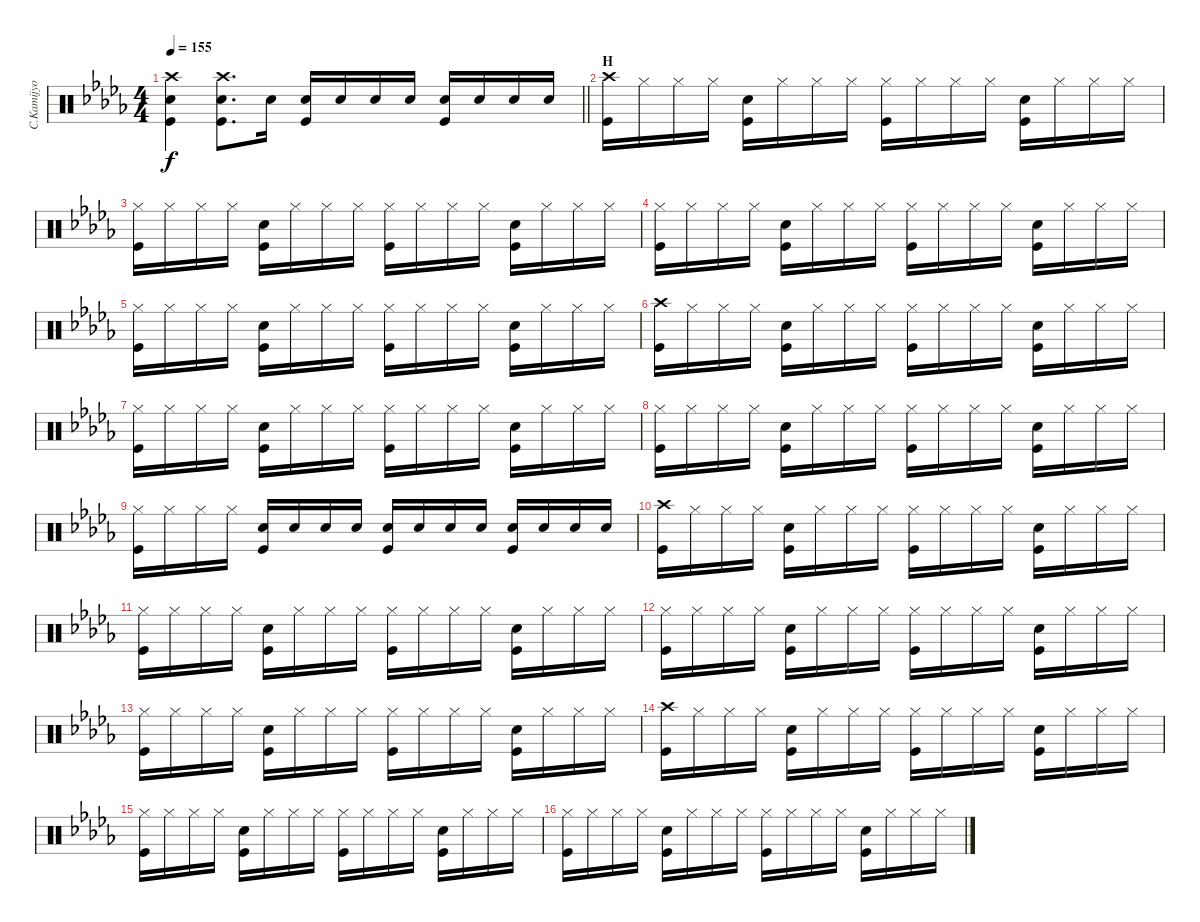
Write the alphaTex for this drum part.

\track ("C.Kamijyo DRUMS" "C.Kamijyo ") {instrument percussion}
\staff {score}
\articulation defaults
\ts (4 4)
\tempo 155
\clef neutral
\barLineRight lightlight
\ks db
("Crash high (hit)" "Snare (hit) 2" "Kick (hit)").4{dy f} ("Crash high (hit)" "Snare (hit) 2" "Kick (hit)").8{d} "Snare (hit) 2".16 ("Snare (hit) 2" "Kick (hit)").16 "Snare (hit) 2".16 "Snare (hit) 2".16 "Snare (hit) 2".16 ("Snare (hit) 2" "Kick (hit)").16 "Snare (hit) 2".16 "Snare (hit) 2".16 "Snare (hit) 2".16 |
\section ("" "H")
("Crash high (hit)" "Kick (hit)").16 "Hi-Hat (closed)".16 "Hi-Hat (closed)".16 "Hi-Hat (closed)".16 ("Snare (hit) 2" "Kick (hit)").16 "Hi-Hat (closed)".16 "Hi-Hat (closed)".16 "Hi-Hat (closed)".16 ("Hi-Hat (closed)" "Kick (hit)").16 "Hi-Hat (closed)".16 "Hi-Hat (closed)".16 "Hi-Hat (closed)".16 ("Snare (hit) 2" "Kick (hit)").16 "Hi-Hat (closed)".16 "Hi-Hat (closed)".16 "Hi-Hat (closed)".16 |
("Hi-Hat (closed)" "Kick (hit)").16 "Hi-Hat (closed)".16 "Hi-Hat (closed)".16 "Hi-Hat (closed)".16 ("Snare (hit) 2" "Kick (hit)").16 "Hi-Hat (closed)".16 "Hi-Hat (closed)".16 "Hi-Hat (closed)".16 ("Hi-Hat (closed)" "Kick (hit)").16 "Hi-Hat (closed)".16 "Hi-Hat (closed)".16 "Hi-Hat (closed)".16 ("Snare (hit) 2" "Kick (hit)").16 "Hi-Hat (closed)".16 "Hi-Hat (closed)".16 "Hi-Hat (closed)".16 |
("Hi-Hat (closed)" "Kick (hit)").16 "Hi-Hat (closed)".16 "Hi-Hat (closed)".16 "Hi-Hat (closed)".16 ("Snare (hit) 2" "Kick (hit)").16 "Hi-Hat (closed)".16 "Hi-Hat (closed)".16 "Hi-Hat (closed)".16 ("Hi-Hat (closed)" "Kick (hit)").16 "Hi-Hat (closed)".16 "Hi-Hat (closed)".16 "Hi-Hat (closed)".16 ("Snare (hit) 2" "Kick (hit)").16 "Hi-Hat (closed)".16 "Hi-Hat (closed)".16 "Hi-Hat (closed)".16 |
("Hi-Hat (closed)" "Kick (hit)").16 "Hi-Hat (closed)".16 "Hi-Hat (closed)".16 "Hi-Hat (closed)".16 ("Snare (hit) 2" "Kick (hit)").16 "Hi-Hat (closed)".16 "Hi-Hat (closed)".16 "Hi-Hat (closed)".16 ("Hi-Hat (closed)" "Kick (hit)").16 "Hi-Hat (closed)".16 "Hi-Hat (closed)".16 "Hi-Hat (closed)".16 ("Snare (hit) 2" "Kick (hit)").16 "Hi-Hat (closed)".16 "Hi-Hat (closed)".16 "Hi-Hat (closed)".16 |
("Crash high (hit)" "Kick (hit)").16 "Hi-Hat (closed)".16 "Hi-Hat (closed)".16 "Hi-Hat (closed)".16 ("Snare (hit) 2" "Kick (hit)").16 "Hi-Hat (closed)".16 "Hi-Hat (closed)".16 "Hi-Hat (closed)".16 ("Hi-Hat (closed)" "Kick (hit)").16 "Hi-Hat (closed)".16 "Hi-Hat (closed)".16 "Hi-Hat (closed)".16 ("Snare (hit) 2" "Kick (hit)").16 "Hi-Hat (closed)".16 "Hi-Hat (closed)".16 "Hi-Hat (closed)".16 |
("Hi-Hat (closed)" "Kick (hit)").16 "Hi-Hat (closed)".16 "Hi-Hat (closed)".16 "Hi-Hat (closed)".16 ("Snare (hit) 2" "Kick (hit)").16 "Hi-Hat (closed)".16 "Hi-Hat (closed)".16 "Hi-Hat (closed)".16 ("Hi-Hat (closed)" "Kick (hit)").16 "Hi-Hat (closed)".16 "Hi-Hat (closed)".16 "Hi-Hat (closed)".16 ("Snare (hit) 2" "Kick (hit)").16 "Hi-Hat (closed)".16 "Hi-Hat (closed)".16 "Hi-Hat (closed)".16 |
("Hi-Hat (closed)" "Kick (hit)").16 "Hi-Hat (closed)".16 "Hi-Hat (closed)".16 "Hi-Hat (closed)".16 ("Snare (hit) 2" "Kick (hit)").16 "Hi-Hat (closed)".16 "Hi-Hat (closed)".16 "Hi-Hat (closed)".16 ("Hi-Hat (closed)" "Kick (hit)").16 "Hi-Hat (closed)".16 "Hi-Hat (closed)".16 "Hi-Hat (closed)".16 ("Snare (hit) 2" "Kick (hit)").16 "Hi-Hat (closed)".16 "Hi-Hat (closed)".16 "Hi-Hat (closed)".16 |
("Hi-Hat (closed)" "Kick (hit)").16 "Hi-Hat (closed)".16 "Hi-Hat (closed)".16 "Hi-Hat (closed)".16 ("Snare (hit) 2" "Kick (hit)").16 "Snare (hit) 2".16 "Snare (hit) 2".16 "Snare (hit) 2".16 ("Snare (hit) 2" "Kick (hit)").16 "Snare (hit) 2".16 "Snare (hit) 2".16 "Snare (hit) 2".16 ("Snare (hit) 2" "Kick (hit)").16 "Snare (hit) 2".16 "Snare (hit) 2".16 "Snare (hit) 2".16 |
("Crash high (hit)" "Kick (hit)").16 "Hi-Hat (closed)".16 "Hi-Hat (closed)".16 "Hi-Hat (closed)".16 ("Snare (hit) 2" "Kick (hit)").16 "Hi-Hat (closed)".16 "Hi-Hat (closed)".16 "Hi-Hat (closed)".16 ("Hi-Hat (closed)" "Kick (hit)").16 "Hi-Hat (closed)".16 "Hi-Hat (closed)".16 "Hi-Hat (closed)".16 ("Snare (hit) 2" "Kick (hit)").16 "Hi-Hat (closed)".16 "Hi-Hat (closed)".16 "Hi-Hat (closed)".16 |
("Hi-Hat (closed)" "Kick (hit)").16 "Hi-Hat (closed)".16 "Hi-Hat (closed)".16 "Hi-Hat (closed)".16 ("Snare (hit) 2" "Kick (hit)").16 "Hi-Hat (closed)".16 "Hi-Hat (closed)".16 "Hi-Hat (closed)".16 ("Hi-Hat (closed)" "Kick (hit)").16 "Hi-Hat (closed)".16 "Hi-Hat (closed)".16 "Hi-Hat (closed)".16 ("Snare (hit) 2" "Kick (hit)").16 "Hi-Hat (closed)".16 "Hi-Hat (closed)".16 "Hi-Hat (closed)".16 |
("Hi-Hat (closed)" "Kick (hit)").16 "Hi-Hat (closed)".16 "Hi-Hat (closed)".16 "Hi-Hat (closed)".16 ("Snare (hit) 2" "Kick (hit)").16 "Hi-Hat (closed)".16 "Hi-Hat (closed)".16 "Hi-Hat (closed)".16 ("Hi-Hat (closed)" "Kick (hit)").16 "Hi-Hat (closed)".16 "Hi-Hat (closed)".16 "Hi-Hat (closed)".16 ("Snare (hit) 2" "Kick (hit)").16 "Hi-Hat (closed)".16 "Hi-Hat (closed)".16 "Hi-Hat (closed)".16 |
("Hi-Hat (closed)" "Kick (hit)").16 "Hi-Hat (closed)".16 "Hi-Hat (closed)".16 "Hi-Hat (closed)".16 ("Snare (hit) 2" "Kick (hit)").16 "Hi-Hat (closed)".16 "Hi-Hat (closed)".16 "Hi-Hat (closed)".16 ("Hi-Hat (closed)" "Kick (hit)").16 "Hi-Hat (closed)".16 "Hi-Hat (closed)".16 "Hi-Hat (closed)".16 ("Snare (hit) 2" "Kick (hit)").16 "Hi-Hat (closed)".16 "Hi-Hat (closed)".16 "Hi-Hat (closed)".16 |
("Crash high (hit)" "Kick (hit)").16 "Hi-Hat (closed)".16 "Hi-Hat (closed)".16 "Hi-Hat (closed)".16 ("Snare (hit) 2" "Kick (hit)").16 "Hi-Hat (closed)".16 "Hi-Hat (closed)".16 "Hi-Hat (closed)".16 ("Hi-Hat (closed)" "Kick (hit)").16 "Hi-Hat (closed)".16 "Hi-Hat (closed)".16 "Hi-Hat (closed)".16 ("Snare (hit) 2" "Kick (hit)").16 "Hi-Hat (closed)".16 "Hi-Hat (closed)".16 "Hi-Hat (closed)".16 |
("Hi-Hat (closed)" "Kick (hit)").16 "Hi-Hat (closed)".16 "Hi-Hat (closed)".16 "Hi-Hat (closed)".16 ("Snare (hit) 2" "Kick (hit)").16 "Hi-Hat (closed)".16 "Hi-Hat (closed)".16 "Hi-Hat (closed)".16 ("Hi-Hat (closed)" "Kick (hit)").16 "Hi-Hat (closed)".16 "Hi-Hat (closed)".16 "Hi-Hat (closed)".16 ("Snare (hit) 2" "Kick (hit)").16 "Hi-Hat (closed)".16 "Hi-Hat (closed)".16 "Hi-Hat (closed)".16 |
("Hi-Hat (closed)" "Kick (hit)").16 "Hi-Hat (closed)".16 "Hi-Hat (closed)".16 "Hi-Hat (closed)".16 ("Snare (hit) 2" "Kick (hit)").16 "Hi-Hat (closed)".16 "Hi-Hat (closed)".16 "Hi-Hat (closed)".16 ("Hi-Hat (closed)" "Kick (hit)").16 "Hi-Hat (closed)".16 "Hi-Hat (closed)".16 "Hi-Hat (closed)".16 ("Snare (hit) 2" "Kick (hit)").16 "Hi-Hat (closed)".16 "Hi-Hat (closed)".16 "Hi-Hat (closed)".16
